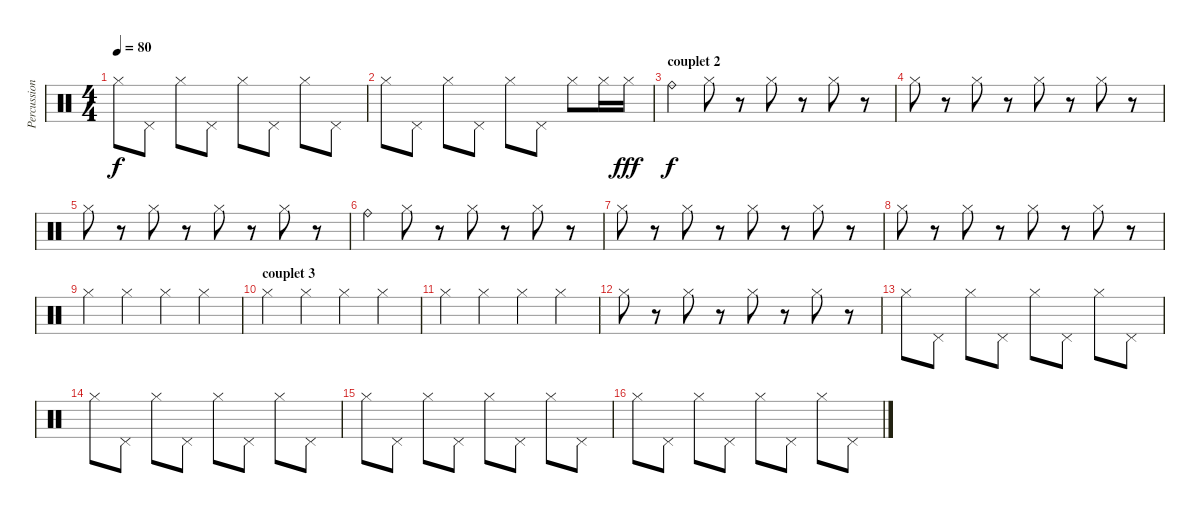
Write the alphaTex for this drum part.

\track ("Percussions" "Percussion") {instrument percussion}
\staff {score}
\articulation defaults
\ts (4 4)
\tempo 80
\clef neutral
\ks c "Hi-Hat (closed)".8{dy f} "Pedal Hi-Hat (hit)".8 "Hi-Hat (closed)".8 "Pedal Hi-Hat (hit)".8 "Hi-Hat (closed)".8 "Pedal Hi-Hat (hit)".8 "Hi-Hat (closed)".8 "Pedal Hi-Hat (hit)".8
|
"Hi-Hat (closed)".8 "Pedal Hi-Hat (hit)".8 "Hi-Hat (closed)".8 "Pedal Hi-Hat (hit)".8 "Hi-Hat (closed)".8 "Pedal Hi-Hat (hit)".8 "Hi-Hat (closed)".8 "Hi-Hat (closed)".16 "Hi-Hat (closed)".16{dy fff} |
\section ("" "couplet 2")
"Ride (bell)".4{dy f} "Hi-Hat (closed)".8 r.8 "Hi-Hat (closed)".8 r.8 "Hi-Hat (closed)".8 r.8 |
"Hi-Hat (closed)".8 r.8 "Hi-Hat (closed)".8 r.8 "Hi-Hat (closed)".8 r.8 "Hi-Hat (closed)".8 r.8 |
"Hi-Hat (closed)".8 r.8 "Hi-Hat (closed)".8 r.8 "Hi-Hat (closed)".8 r.8 "Hi-Hat (closed)".8 r.8 |
"Ride (bell)".4 "Hi-Hat (closed)".8 r.8 "Hi-Hat (closed)".8 r.8 "Hi-Hat (closed)".8 r.8 |
"Hi-Hat (closed)".8 r.8 "Hi-Hat (closed)".8 r.8 "Hi-Hat (closed)".8 r.8 "Hi-Hat (closed)".8 r.8 |
"Hi-Hat (closed)".8 r.8 "Hi-Hat (closed)".8 r.8 "Hi-Hat (closed)".8 r.8 "Hi-Hat (closed)".8 r.8 |
"Hi-Hat (closed)".4 "Hi-Hat (closed)".4 "Hi-Hat (closed)".4 "Hi-Hat (closed)".4 |
\section ("" "couplet 3")
"Hi-Hat (closed)".4 "Hi-Hat (closed)".4 "Hi-Hat (closed)".4 "Hi-Hat (closed)".4 |
"Hi-Hat (closed)".4 "Hi-Hat (closed)".4 "Hi-Hat (closed)".4 "Hi-Hat (closed)".4 |
"Hi-Hat (closed)".8 r.8 "Hi-Hat (closed)".8 r.8 "Hi-Hat (closed)".8 r.8 "Hi-Hat (closed)".8 r.8 |
"Hi-Hat (closed)".8 "Pedal Hi-Hat (hit)".8 "Hi-Hat (closed)".8 "Pedal Hi-Hat (hit)".8 "Hi-Hat (closed)".8 "Pedal Hi-Hat (hit)".8 "Hi-Hat (closed)".8 "Pedal Hi-Hat (hit)".8 |
"Hi-Hat (closed)".8 "Pedal Hi-Hat (hit)".8 "Hi-Hat (closed)".8 "Pedal Hi-Hat (hit)".8 "Hi-Hat (closed)".8 "Pedal Hi-Hat (hit)".8 "Hi-Hat (closed)".8 "Pedal Hi-Hat (hit)".8 |
"Hi-Hat (closed)".8 "Pedal Hi-Hat (hit)".8 "Hi-Hat (closed)".8 "Pedal Hi-Hat (hit)".8 "Hi-Hat (closed)".8 "Pedal Hi-Hat (hit)".8 "Hi-Hat (closed)".8 "Pedal Hi-Hat (hit)".8 |
"Hi-Hat (closed)".8 "Pedal Hi-Hat (hit)".8 "Hi-Hat (closed)".8 "Pedal Hi-Hat (hit)".8 "Hi-Hat (closed)".8 "Pedal Hi-Hat (hit)".8 "Hi-Hat (closed)".8 "Pedal Hi-Hat (hit)".8
